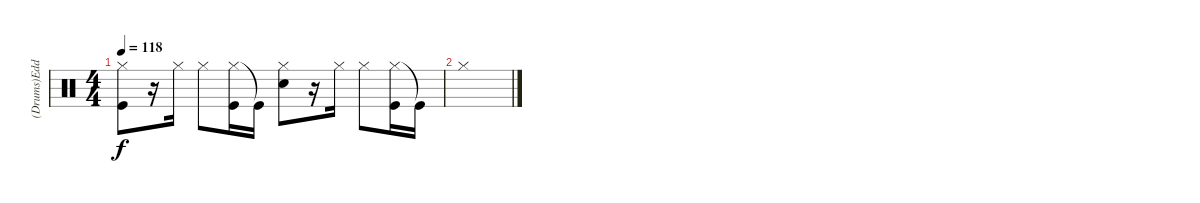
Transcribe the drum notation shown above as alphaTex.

\track ("(Drums)Eddie Fisher" "(Drums)Edd") {instrument percussion}
\staff {score}
\articulation defaults
\ts (4 4)
\tempo 118
\clef neutral
\ks c
("Kick (hit)" "Hi-Hat (closed)").8{dy f} r.16 "Hi-Hat (closed)".16 "Hi-Hat (closed)".8 ("Hi-Hat (closed)" "Kick (hit)").16 "Kick (hit)"{t}.16 ("Hi-Hat (closed)" "Hand Clap (hit)").8 r.16 "Hi-Hat (closed)".16 "Hi-Hat (closed)".8 ("Hi-Hat (closed)" "Kick (hit)").16 "Kick (hit)"{t}.16 |
"Hi-Hat (closed)".1
